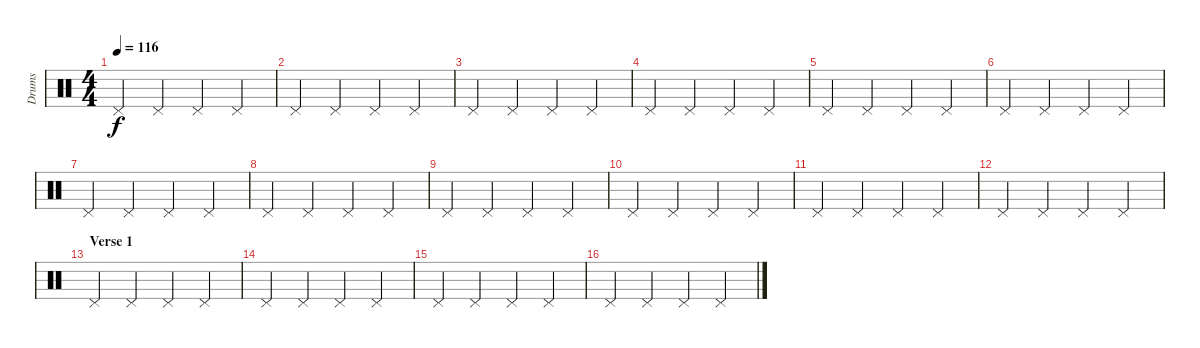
\track ("Drums" "Drums") {instrument percussion}
\staff {score}
\articulation defaults
\ts (4 4)
\tempo 116
\clef neutral
\ks c "Pedal Hi-Hat (hit)".4{dy f} "Pedal Hi-Hat (hit)".4 "Pedal Hi-Hat (hit)".4 "Pedal Hi-Hat (hit)".4
|
"Pedal Hi-Hat (hit)".4 "Pedal Hi-Hat (hit)".4 "Pedal Hi-Hat (hit)".4 "Pedal Hi-Hat (hit)".4 |
"Pedal Hi-Hat (hit)".4 "Pedal Hi-Hat (hit)".4 "Pedal Hi-Hat (hit)".4 "Pedal Hi-Hat (hit)".4 |
"Pedal Hi-Hat (hit)".4 "Pedal Hi-Hat (hit)".4 "Pedal Hi-Hat (hit)".4 "Pedal Hi-Hat (hit)".4 |
"Pedal Hi-Hat (hit)".4 "Pedal Hi-Hat (hit)".4 "Pedal Hi-Hat (hit)".4 "Pedal Hi-Hat (hit)".4 |
"Pedal Hi-Hat (hit)".4 "Pedal Hi-Hat (hit)".4 "Pedal Hi-Hat (hit)".4 "Pedal Hi-Hat (hit)".4 |
"Pedal Hi-Hat (hit)".4 "Pedal Hi-Hat (hit)".4 "Pedal Hi-Hat (hit)".4 "Pedal Hi-Hat (hit)".4 |
"Pedal Hi-Hat (hit)".4 "Pedal Hi-Hat (hit)".4 "Pedal Hi-Hat (hit)".4 "Pedal Hi-Hat (hit)".4 |
"Pedal Hi-Hat (hit)".4 "Pedal Hi-Hat (hit)".4 "Pedal Hi-Hat (hit)".4 "Pedal Hi-Hat (hit)".4 |
"Pedal Hi-Hat (hit)".4 "Pedal Hi-Hat (hit)".4 "Pedal Hi-Hat (hit)".4 "Pedal Hi-Hat (hit)".4 |
"Pedal Hi-Hat (hit)".4 "Pedal Hi-Hat (hit)".4 "Pedal Hi-Hat (hit)".4 "Pedal Hi-Hat (hit)".4 |
"Pedal Hi-Hat (hit)".4 "Pedal Hi-Hat (hit)".4 "Pedal Hi-Hat (hit)".4 "Pedal Hi-Hat (hit)".4 |
\section ("" "Verse 1")
"Pedal Hi-Hat (hit)".4 "Pedal Hi-Hat (hit)".4 "Pedal Hi-Hat (hit)".4 "Pedal Hi-Hat (hit)".4 |
"Pedal Hi-Hat (hit)".4 "Pedal Hi-Hat (hit)".4 "Pedal Hi-Hat (hit)".4 "Pedal Hi-Hat (hit)".4 |
"Pedal Hi-Hat (hit)".4 "Pedal Hi-Hat (hit)".4 "Pedal Hi-Hat (hit)".4 "Pedal Hi-Hat (hit)".4 |
"Pedal Hi-Hat (hit)".4 "Pedal Hi-Hat (hit)".4 "Pedal Hi-Hat (hit)".4 "Pedal Hi-Hat (hit)".4
